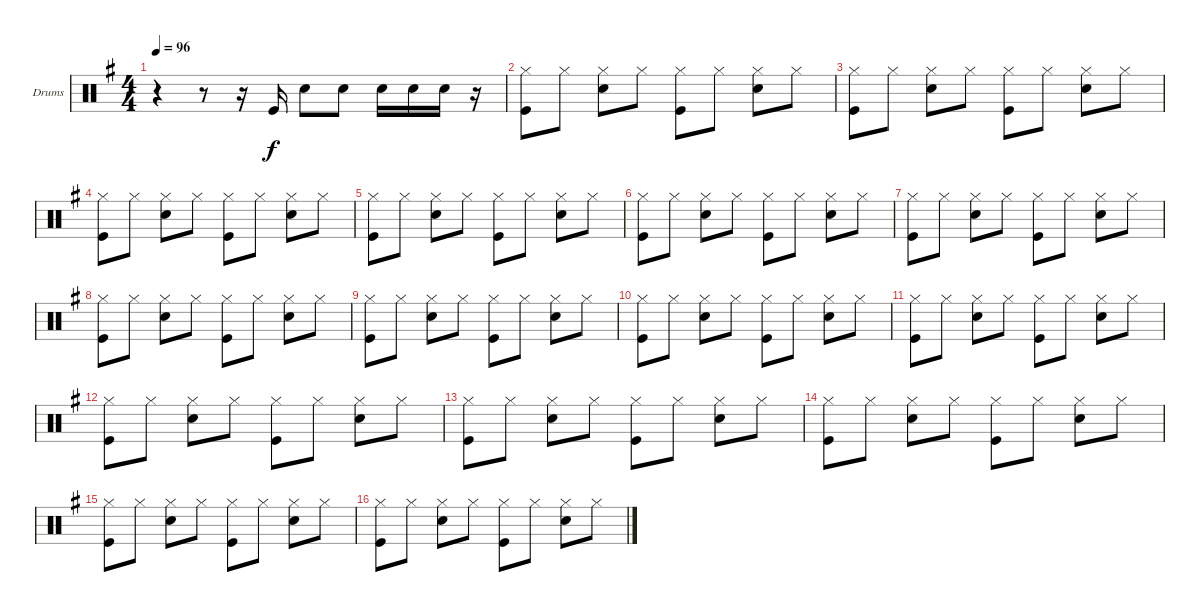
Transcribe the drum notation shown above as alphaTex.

\bracketExtendMode groupsimilarinstruments
\firstSystemTrackNameOrientation horizontal
\otherSystemsTrackNameOrientation horizontal
\track ("Drumkit" "Drums") {instrument percussion}
\staff {score}
\articulation defaults
\ts (4 4)
\tempo 96
\clef neutral
\ks eminor
r.4{dy f} r.8 r.16 "Kick (hit)".16 "Snare (hit) 2".8 "Snare (hit) 2".8 "Snare (hit) 2".16 "Snare (hit) 2".16 "Snare (hit) 2".16 r.16 |
("Hi-Hat (closed)" "Kick (hit)").8 "Hi-Hat (closed)".8 ("Hi-Hat (closed)" "Snare (hit) 2").8 "Hi-Hat (closed)".8 ("Hi-Hat (closed)" "Kick (hit)").8 "Hi-Hat (closed)".8 ("Hi-Hat (closed)" "Snare (hit) 2").8 "Hi-Hat (closed)".8 |
("Hi-Hat (closed)" "Kick (hit)").8 "Hi-Hat (closed)".8 ("Hi-Hat (closed)" "Snare (hit) 2").8 "Hi-Hat (closed)".8 ("Hi-Hat (closed)" "Kick (hit)").8 "Hi-Hat (closed)".8 ("Hi-Hat (closed)" "Snare (hit) 2").8 "Hi-Hat (closed)".8 |
("Hi-Hat (closed)" "Kick (hit)").8 "Hi-Hat (closed)".8 ("Hi-Hat (closed)" "Snare (hit) 2").8 "Hi-Hat (closed)".8 ("Hi-Hat (closed)" "Kick (hit)").8 "Hi-Hat (closed)".8 ("Hi-Hat (closed)" "Snare (hit) 2").8 "Hi-Hat (closed)".8 |
("Hi-Hat (closed)" "Kick (hit)").8 "Hi-Hat (closed)".8 ("Hi-Hat (closed)" "Snare (hit) 2").8 "Hi-Hat (closed)".8 ("Hi-Hat (closed)" "Kick (hit)").8 "Hi-Hat (closed)".8 ("Hi-Hat (closed)" "Snare (hit) 2").8 "Hi-Hat (closed)".8 |
("Hi-Hat (closed)" "Kick (hit)").8 "Hi-Hat (closed)".8 ("Hi-Hat (closed)" "Snare (hit) 2").8 "Hi-Hat (closed)".8 ("Hi-Hat (closed)" "Kick (hit)").8 "Hi-Hat (closed)".8 ("Hi-Hat (closed)" "Snare (hit) 2").8 "Hi-Hat (closed)".8 |
("Hi-Hat (closed)" "Kick (hit)").8 "Hi-Hat (closed)".8 ("Hi-Hat (closed)" "Snare (hit) 2").8 "Hi-Hat (closed)".8 ("Hi-Hat (closed)" "Kick (hit)").8 "Hi-Hat (closed)".8 ("Hi-Hat (closed)" "Snare (hit) 2").8 "Hi-Hat (closed)".8 |
("Hi-Hat (closed)" "Kick (hit)").8 "Hi-Hat (closed)".8 ("Hi-Hat (closed)" "Snare (hit) 2").8 "Hi-Hat (closed)".8 ("Hi-Hat (closed)" "Kick (hit)").8 "Hi-Hat (closed)".8 ("Hi-Hat (closed)" "Snare (hit) 2").8 "Hi-Hat (closed)".8 |
("Hi-Hat (closed)" "Kick (hit)").8 "Hi-Hat (closed)".8 ("Hi-Hat (closed)" "Snare (hit) 2").8 "Hi-Hat (closed)".8 ("Hi-Hat (closed)" "Kick (hit)").8 "Hi-Hat (closed)".8 ("Hi-Hat (closed)" "Snare (hit) 2").8 "Hi-Hat (closed)".8 |
("Hi-Hat (closed)" "Kick (hit)").8 "Hi-Hat (closed)".8 ("Hi-Hat (closed)" "Snare (hit) 2").8 "Hi-Hat (closed)".8 ("Hi-Hat (closed)" "Kick (hit)").8 "Hi-Hat (closed)".8 ("Hi-Hat (closed)" "Snare (hit) 2").8 "Hi-Hat (closed)".8 |
("Hi-Hat (closed)" "Kick (hit)").8 "Hi-Hat (closed)".8 ("Hi-Hat (closed)" "Snare (hit) 2").8 "Hi-Hat (closed)".8 ("Hi-Hat (closed)" "Kick (hit)").8 "Hi-Hat (closed)".8 ("Hi-Hat (closed)" "Snare (hit) 2").8 "Hi-Hat (closed)".8 |
("Hi-Hat (closed)" "Kick (hit)").8 "Hi-Hat (closed)".8 ("Hi-Hat (closed)" "Snare (hit) 2").8 "Hi-Hat (closed)".8 ("Hi-Hat (closed)" "Kick (hit)").8 "Hi-Hat (closed)".8 ("Hi-Hat (closed)" "Snare (hit) 2").8 "Hi-Hat (closed)".8 |
("Hi-Hat (closed)" "Kick (hit)").8 "Hi-Hat (closed)".8 ("Hi-Hat (closed)" "Snare (hit) 2").8 "Hi-Hat (closed)".8 ("Hi-Hat (closed)" "Kick (hit)").8 "Hi-Hat (closed)".8 ("Hi-Hat (closed)" "Snare (hit) 2").8 "Hi-Hat (closed)".8 |
("Hi-Hat (closed)" "Kick (hit)").8 "Hi-Hat (closed)".8 ("Hi-Hat (closed)" "Snare (hit) 2").8 "Hi-Hat (closed)".8 ("Hi-Hat (closed)" "Kick (hit)").8 "Hi-Hat (closed)".8 ("Hi-Hat (closed)" "Snare (hit) 2").8 "Hi-Hat (closed)".8 |
("Hi-Hat (closed)" "Kick (hit)").8 "Hi-Hat (closed)".8 ("Hi-Hat (closed)" "Snare (hit) 2").8 "Hi-Hat (closed)".8 ("Hi-Hat (closed)" "Kick (hit)").8 "Hi-Hat (closed)".8 ("Hi-Hat (closed)" "Snare (hit) 2").8 "Hi-Hat (closed)".8 |
("Hi-Hat (closed)" "Kick (hit)").8 "Hi-Hat (closed)".8 ("Hi-Hat (closed)" "Snare (hit) 2").8 "Hi-Hat (closed)".8 ("Hi-Hat (closed)" "Kick (hit)").8 "Hi-Hat (closed)".8 ("Hi-Hat (closed)" "Snare (hit) 2").8 "Hi-Hat (closed)".8
